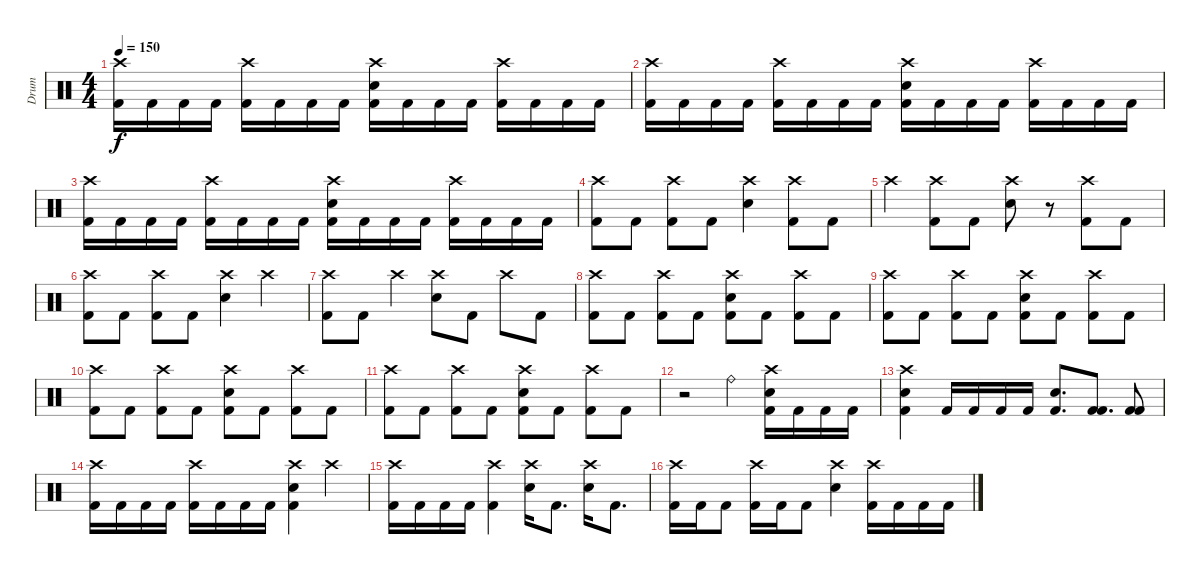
\track ("Drum" "Drum") {instrument percussion}
\staff {score}
\articulation defaults
\ts (4 4)
\tempo 150
\clef neutral
\ks c
("Crash high (hit)" "Kick (hit) 2").16{dy f} "Kick (hit) 2".16 "Kick (hit) 2".16 "Kick (hit) 2".16 ("Crash high (hit)" "Kick (hit) 2").16 "Kick (hit) 2".16 "Kick (hit) 2".16 "Kick (hit) 2".16 ("Crash high (hit)" "Electric Snare (hit)" "Kick (hit) 2").16 "Kick (hit) 2".16 "Kick (hit) 2".16 "Kick (hit) 2".16 ("Crash high (hit)" "Kick (hit) 2").16 "Kick (hit) 2".16 "Kick (hit) 2".16 "Kick (hit) 2".16 |
("Crash high (hit)" "Kick (hit) 2").16 "Kick (hit) 2".16 "Kick (hit) 2".16 "Kick (hit) 2".16 ("Crash high (hit)" "Kick (hit) 2").16 "Kick (hit) 2".16 "Kick (hit) 2".16 "Kick (hit) 2".16 ("Crash high (hit)" "Electric Snare (hit)" "Kick (hit) 2").16 "Kick (hit) 2".16 "Kick (hit) 2".16 "Kick (hit) 2".16 ("Crash high (hit)" "Kick (hit) 2").16 "Kick (hit) 2".16 "Kick (hit) 2".16 "Kick (hit) 2".16 |
("Crash high (hit)" "Kick (hit) 2").16 "Kick (hit) 2".16 "Kick (hit) 2".16 "Kick (hit) 2".16 ("Crash high (hit)" "Kick (hit) 2").16 "Kick (hit) 2".16 "Kick (hit) 2".16 "Kick (hit) 2".16 ("Crash high (hit)" "Electric Snare (hit)" "Kick (hit) 2").16 "Kick (hit) 2".16 "Kick (hit) 2".16 "Kick (hit) 2".16 ("Crash high (hit)" "Kick (hit) 2").16 "Kick (hit) 2".16 "Kick (hit) 2".16 "Kick (hit) 2".16 |
("Crash high (hit)" "Kick (hit) 2").8 "Kick (hit) 2".8 ("Crash high (hit)" "Kick (hit) 2").8 "Kick (hit) 2".8 ("Crash high (hit)" "Electric Snare (hit)").4 ("Crash high (hit)" "Kick (hit) 2").8 "Kick (hit) 2".8 |
"Crash high (hit)".4 ("Crash high (hit)" "Kick (hit) 2").8 "Kick (hit) 2".8 ("Crash high (hit)" "Electric Snare (hit)").8 r.8 ("Crash high (hit)" "Kick (hit) 2").8 "Kick (hit) 2".8 |
("Crash high (hit)" "Kick (hit) 2").8 "Kick (hit) 2".8 ("Crash high (hit)" "Kick (hit) 2").8 "Kick (hit) 2".8 ("Crash high (hit)" "Electric Snare (hit)").4 "Crash high (hit)".4 |
("Crash high (hit)" "Kick (hit) 2").8 "Kick (hit) 2".8 "Crash high (hit)".4 ("Crash high (hit)" "Electric Snare (hit)").8 "Kick (hit) 2".8 "Crash high (hit)".8 "Kick (hit) 2".8 |
("Crash high (hit)" "Kick (hit) 2").8 "Kick (hit) 2".8 ("Crash high (hit)" "Kick (hit) 2").8 "Kick (hit) 2".8 ("Crash high (hit)" "Electric Snare (hit)" "Kick (hit) 2").8 "Kick (hit) 2".8 ("Crash high (hit)" "Kick (hit) 2").8 "Kick (hit) 2".8 |
("Crash high (hit)" "Kick (hit) 2").8 "Kick (hit) 2".8 ("Crash high (hit)" "Kick (hit) 2").8 "Kick (hit) 2".8 ("Crash high (hit)" "Electric Snare (hit)" "Kick (hit) 2").8 "Kick (hit) 2".8 ("Crash high (hit)" "Kick (hit) 2").8 "Kick (hit) 2".8 |
("Crash high (hit)" "Kick (hit) 2").8 "Kick (hit) 2".8 ("Crash high (hit)" "Kick (hit) 2").8 "Kick (hit) 2".8 ("Crash high (hit)" "Electric Snare (hit)" "Kick (hit) 2").8 "Kick (hit) 2".8 ("Crash high (hit)" "Kick (hit) 2").8 "Kick (hit) 2".8 |
("Crash high (hit)" "Kick (hit) 2").8 "Kick (hit) 2".8 ("Crash high (hit)" "Kick (hit) 2").8 "Kick (hit) 2".8 ("Crash high (hit)" "Electric Snare (hit)" "Kick (hit) 2").8 "Kick (hit) 2".8 ("Crash high (hit)" "Kick (hit) 2").8 "Kick (hit) 2".8 |
r.2 "Ride (bell)".4 ("Crash high (hit)" "Electric Snare (hit)" "Kick (hit) 2").16 "Kick (hit) 2".16 "Kick (hit) 2".16 "Kick (hit) 2".16 |
("Crash high (hit)" "Electric Snare (hit)" "Kick (hit) 2").4 "Kick (hit) 2".16 "Kick (hit) 2".16 "Kick (hit) 2".16 "Kick (hit) 2".16 ("Electric Snare (hit)" "Kick (hit) 2").8{d} ("Kick (hit) 2" "Kick (hit) 2").8{d} ("Kick (hit) 2" "Kick (hit) 2").8 |
("Crash high (hit)" "Kick (hit) 2").16 "Kick (hit) 2".16 "Kick (hit) 2".16 "Kick (hit) 2".16 ("Crash high (hit)" "Kick (hit) 2").16 "Kick (hit) 2".16 "Kick (hit) 2".16 "Kick (hit) 2".16 ("Crash high (hit)" "Electric Snare (hit)" "Kick (hit) 2").4 "Crash high (hit)".4 |
("Crash high (hit)" "Kick (hit) 2").16 "Kick (hit) 2".16 "Kick (hit) 2".16 "Kick (hit) 2".16 ("Crash high (hit)" "Kick (hit) 2").4 ("Crash high (hit)" "Electric Snare (hit)").16 "Kick (hit) 2".8{d} ("Crash high (hit)" "Electric Snare (hit)").16 "Kick (hit) 2".8{d} |
("Crash high (hit)" "Kick (hit) 2").16 "Kick (hit) 2".16 "Kick (hit) 2".8 ("Crash high (hit)" "Kick (hit) 2").16 "Kick (hit) 2".16 "Kick (hit) 2".8 ("Crash high (hit)" "Electric Snare (hit)").4 ("Crash high (hit)" "Kick (hit) 2").16 "Kick (hit) 2".16 "Kick (hit) 2".16 "Kick (hit) 2".16
